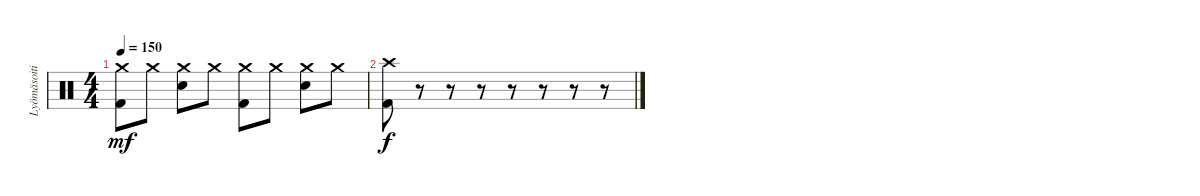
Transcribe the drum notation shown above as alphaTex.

\track ("Lyömäsoitin" "Lyömäsoiti") {instrument percussion}
\staff {score}
\articulation defaults
\ts (4 4)
\tempo 150
\clef neutral
\ks c
("Crash medium (hit)" "Kick (hit) 2").8{dy mf} "Crash medium (hit)".8 ("Crash medium (hit)" "Electric Snare (hit)").8 "Crash medium (hit)".8 ("Crash medium (hit)" "Kick (hit) 2").8 "Crash medium (hit)".8 ("Crash medium (hit)" "Electric Snare (hit)").8 "Crash medium (hit)".8 |
("Crash high (hit)" "Kick (hit) 2").8{dy f} r.8 r.8 r.8 r.8 r.8 r.8 r.8
